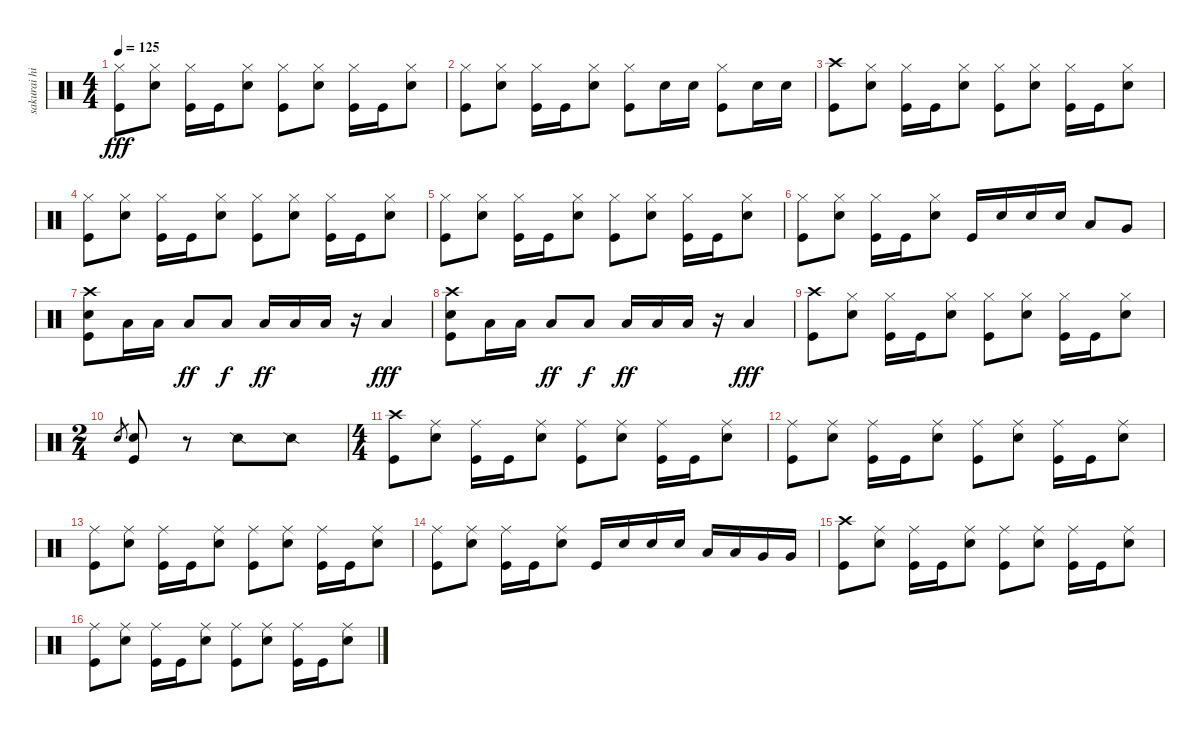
\track ("sakurai hiroshi" "sakurai hi") {instrument percussion}
\staff {score}
\articulation defaults
\ts (4 4)
\tempo 125
\clef neutral
\ks c
("Kick (hit)" "Hi-Hat (closed)").8{dy fff} ("Hi-Hat (closed)" "Snare (hit) 2").8 ("Hi-Hat (closed)" "Kick (hit)").16 "Kick (hit)".16 ("Hi-Hat (closed)" "Snare (hit) 2").8 ("Kick (hit)" "Hi-Hat (closed)").8 ("Hi-Hat (closed)" "Snare (hit) 2").8 ("Hi-Hat (closed)" "Kick (hit)").16 "Kick (hit)".16 ("Hi-Hat (closed)" "Snare (hit) 2").8 |
("Kick (hit)" "Hi-Hat (closed)").8 ("Hi-Hat (closed)" "Snare (hit) 2").8 ("Hi-Hat (closed)" "Kick (hit)").16 "Kick (hit)".16 ("Hi-Hat (closed)" "Snare (hit) 2").8 ("Kick (hit)" "Hi-Hat (closed)").8 "Snare (hit) 2".16 "Snare (hit) 2".16 ("Hi-Hat (closed)" "Kick (hit)").8 "Snare (hit) 2".16 "Snare (hit) 2".16 |
("Kick (hit)" "Crash high (hit)").8 ("Hi-Hat (closed)" "Snare (hit) 2").8 ("Hi-Hat (closed)" "Kick (hit)").16 "Kick (hit)".16 ("Hi-Hat (closed)" "Snare (hit) 2").8 ("Kick (hit)" "Hi-Hat (closed)").8 ("Hi-Hat (closed)" "Snare (hit) 2").8 ("Hi-Hat (closed)" "Kick (hit)").16 "Kick (hit)".16 ("Hi-Hat (closed)" "Snare (hit) 2").8 |
("Kick (hit)" "Hi-Hat (closed)").8 ("Hi-Hat (closed)" "Snare (hit) 2").8 ("Hi-Hat (closed)" "Kick (hit)").16 "Kick (hit)".16 ("Hi-Hat (closed)" "Snare (hit) 2").8 ("Kick (hit)" "Hi-Hat (closed)").8 ("Hi-Hat (closed)" "Snare (hit) 2").8 ("Hi-Hat (closed)" "Kick (hit)").16 "Kick (hit)".16 ("Hi-Hat (closed)" "Snare (hit) 2").8 |
("Kick (hit)" "Hi-Hat (closed)").8 ("Hi-Hat (closed)" "Snare (hit) 2").8 ("Hi-Hat (closed)" "Kick (hit)").16 "Kick (hit)".16 ("Hi-Hat (closed)" "Snare (hit) 2").8 ("Kick (hit)" "Hi-Hat (closed)").8 ("Hi-Hat (closed)" "Snare (hit) 2").8 ("Hi-Hat (closed)" "Kick (hit)").16 "Kick (hit)".16 ("Hi-Hat (closed)" "Snare (hit) 2").8 |
("Kick (hit)" "Hi-Hat (closed)").8 ("Hi-Hat (closed)" "Snare (hit) 2").8 ("Hi-Hat (closed)" "Kick (hit)").16 "Kick (hit)".16 ("Hi-Hat (closed)" "Snare (hit) 2").8 "Kick (hit)".16 "Snare (hit) 2".16 "Snare (hit) 2".16 "Snare (hit) 2".16 "Low Tom (hit)".8 "Very Low Tom (hit)".8 |
("Kick (hit)" "Crash high (hit)" "Snare (hit) 2").8 "Low Floor Tom (hit)".16 "Low Floor Tom (hit)".16 "Low Floor Tom (hit)".8{dy ff} "Low Floor Tom (hit)".8{dy f} "Low Floor Tom (hit)".16{dy ff} "Low Floor Tom (hit)".16 "Low Floor Tom (hit)".16 r.16 "Low Floor Tom (hit)".4{dy fff} |
("Kick (hit)" "Crash high (hit)" "Snare (hit) 2").8 "Low Floor Tom (hit)".16 "Low Floor Tom (hit)".16 "Low Floor Tom (hit)".8{dy ff} "Low Floor Tom (hit)".8{dy f} "Low Floor Tom (hit)".16{dy ff} "Low Floor Tom (hit)".16 "Low Floor Tom (hit)".16 r.16 "Low Floor Tom (hit)".4{dy fff} |
("Kick (hit)" "Crash high (hit)").8 ("Hi-Hat (closed)" "Snare (hit) 2").8 ("Hi-Hat (closed)" "Kick (hit)").16 "Kick (hit)".16 ("Hi-Hat (closed)" "Snare (hit) 2").8 ("Kick (hit)" "Hi-Hat (closed)").8 ("Hi-Hat (closed)" "Snare (hit) 2").8 ("Hi-Hat (closed)" "Kick (hit)").16 "Kick (hit)".16 ("Hi-Hat (closed)" "Snare (hit) 2").8 |
\ts (2 4)
"Snare (hit) 2".8{gr} ("Snare (hit) 2" "Kick (hit)").8 r.8 "Snare (side stick) 2".8 "Snare (side stick) 2".8 |
\ts (4 4)
("Kick (hit)" "Crash high (hit)").8 ("Ride (middle)" "Snare (hit) 2").8 ("Ride (middle)" "Kick (hit)").16 "Kick (hit)".16 ("Ride (middle)" "Snare (hit) 2").8 ("Ride (middle)" "Kick (hit)").8 ("Ride (middle)" "Snare (hit) 2").8 ("Ride (middle)" "Kick (hit)").16 "Kick (hit)".16 ("Ride (middle)" "Snare (hit) 2").8 |
("Kick (hit)" "Ride (middle)").8 ("Ride (middle)" "Snare (hit) 2").8 ("Ride (middle)" "Kick (hit)").16 "Kick (hit)".16 ("Ride (middle)" "Snare (hit) 2").8 ("Ride (middle)" "Kick (hit)").8 ("Ride (middle)" "Snare (hit) 2").8 ("Ride (middle)" "Kick (hit)").16 "Kick (hit)".16 ("Ride (middle)" "Snare (hit) 2").8 |
("Kick (hit)" "Ride (middle)").8 ("Ride (middle)" "Snare (hit) 2").8 ("Ride (middle)" "Kick (hit)").16 "Kick (hit)".16 ("Ride (middle)" "Snare (hit) 2").8 ("Ride (middle)" "Kick (hit)").8 ("Ride (middle)" "Snare (hit) 2").8 ("Ride (middle)" "Kick (hit)").16 "Kick (hit)".16 ("Ride (middle)" "Snare (hit) 2").8 |
("Kick (hit)" "Ride (middle)").8 ("Ride (middle)" "Snare (hit) 2").8 ("Ride (middle)" "Kick (hit)").16 "Kick (hit)".16 ("Ride (middle)" "Snare (hit) 2").8 "Kick (hit)".16 "Snare (hit) 2".16 "Snare (hit) 2".16 "Snare (hit) 2".16 "Low Tom (hit)".16 "Low Tom (hit)".16 "Very Low Tom (hit)".16 "Very Low Tom (hit)".16 |
("Kick (hit)" "Crash high (hit)").8 ("Ride (middle)" "Snare (hit) 2").8 ("Ride (middle)" "Kick (hit)").16 "Kick (hit)".16 ("Ride (middle)" "Snare (hit) 2").8 ("Ride (middle)" "Kick (hit)").8 ("Ride (middle)" "Snare (hit) 2").8 ("Ride (middle)" "Kick (hit)").16 "Kick (hit)".16 ("Ride (middle)" "Snare (hit) 2").8 |
("Kick (hit)" "Ride (middle)").8 ("Ride (middle)" "Snare (hit) 2").8 ("Ride (middle)" "Kick (hit)").16 "Kick (hit)".16 ("Ride (middle)" "Snare (hit) 2").8 ("Ride (middle)" "Kick (hit)").8 ("Ride (middle)" "Snare (hit) 2").8 ("Ride (middle)" "Kick (hit)").16 "Kick (hit)".16 ("Ride (middle)" "Snare (hit) 2").8
